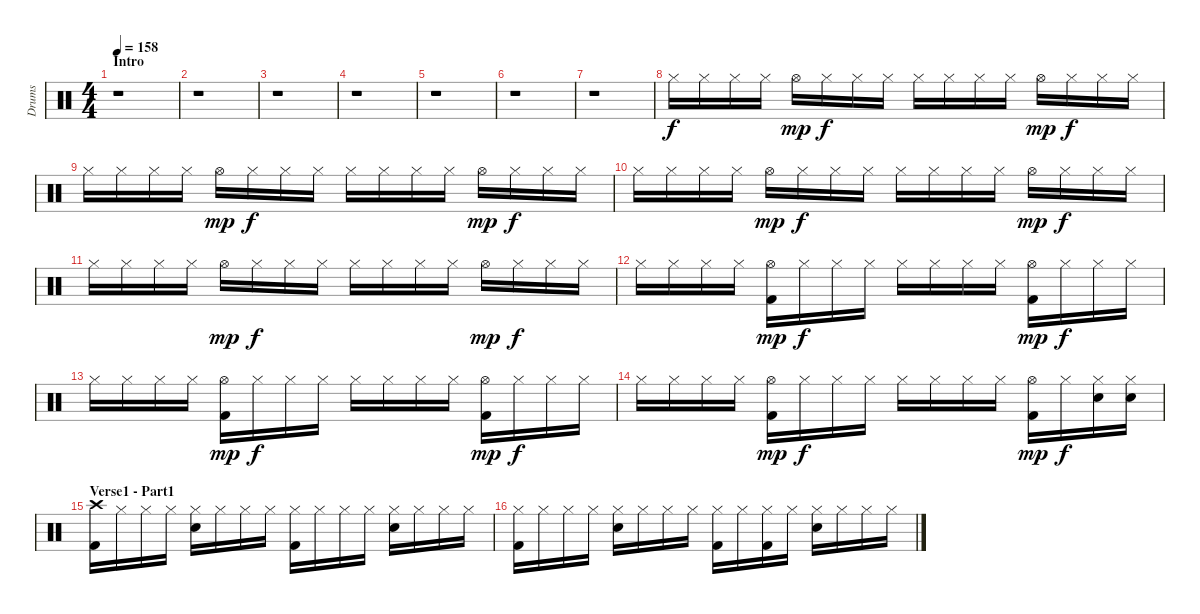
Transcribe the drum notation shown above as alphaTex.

\track ("Drums" "Drums") {instrument percussion}
\staff {score}
\articulation defaults
\ts (4 4)
\section ("" "Intro")
\tempo 158
\clef neutral
\ks c
r.1{dy f} |
r.1 |
r.1 |
r.1 |
r.1 |
r.1 |
r.1 |
"Hi-Hat (closed)".16 "Hi-Hat (closed)".16 "Hi-Hat (closed)".16 "Hi-Hat (closed)".16 "Hi-Hat (open)".16{dy mp} "Hi-Hat (closed)".16{dy f} "Hi-Hat (closed)".16 "Hi-Hat (closed)".16 "Hi-Hat (closed)".16 "Hi-Hat (closed)".16 "Hi-Hat (closed)".16 "Hi-Hat (closed)".16 "Hi-Hat (open)".16{dy mp} "Hi-Hat (closed)".16{dy f} "Hi-Hat (closed)".16 "Hi-Hat (closed)".16 |
"Hi-Hat (closed)".16 "Hi-Hat (closed)".16 "Hi-Hat (closed)".16 "Hi-Hat (closed)".16 "Hi-Hat (open)".16{dy mp} "Hi-Hat (closed)".16{dy f} "Hi-Hat (closed)".16 "Hi-Hat (closed)".16 "Hi-Hat (closed)".16 "Hi-Hat (closed)".16 "Hi-Hat (closed)".16 "Hi-Hat (closed)".16 "Hi-Hat (open)".16{dy mp} "Hi-Hat (closed)".16{dy f} "Hi-Hat (closed)".16 "Hi-Hat (closed)".16 |
"Hi-Hat (closed)".16 "Hi-Hat (closed)".16 "Hi-Hat (closed)".16 "Hi-Hat (closed)".16 "Hi-Hat (open)".16{dy mp} "Hi-Hat (closed)".16{dy f} "Hi-Hat (closed)".16 "Hi-Hat (closed)".16 "Hi-Hat (closed)".16 "Hi-Hat (closed)".16 "Hi-Hat (closed)".16 "Hi-Hat (closed)".16 "Hi-Hat (open)".16{dy mp} "Hi-Hat (closed)".16{dy f} "Hi-Hat (closed)".16 "Hi-Hat (closed)".16 |
"Hi-Hat (closed)".16 "Hi-Hat (closed)".16 "Hi-Hat (closed)".16 "Hi-Hat (closed)".16 "Hi-Hat (open)".16{dy mp} "Hi-Hat (closed)".16{dy f} "Hi-Hat (closed)".16 "Hi-Hat (closed)".16 "Hi-Hat (closed)".16 "Hi-Hat (closed)".16 "Hi-Hat (closed)".16 "Hi-Hat (closed)".16 "Hi-Hat (open)".16{dy mp} "Hi-Hat (closed)".16{dy f} "Hi-Hat (closed)".16 "Hi-Hat (closed)".16 |
"Hi-Hat (closed)".16 "Hi-Hat (closed)".16 "Hi-Hat (closed)".16 "Hi-Hat (closed)".16 ("Hi-Hat (open)" "Kick (hit) 2").16{dy mp} "Hi-Hat (closed)".16{dy f} "Hi-Hat (closed)".16 "Hi-Hat (closed)".16 "Hi-Hat (closed)".16 "Hi-Hat (closed)".16 "Hi-Hat (closed)".16 "Hi-Hat (closed)".16 ("Hi-Hat (open)" "Kick (hit) 2").16{dy mp} "Hi-Hat (closed)".16{dy f} "Hi-Hat (closed)".16 "Hi-Hat (closed)".16 |
"Hi-Hat (closed)".16 "Hi-Hat (closed)".16 "Hi-Hat (closed)".16 "Hi-Hat (closed)".16 ("Hi-Hat (open)" "Kick (hit) 2").16{dy mp} "Hi-Hat (closed)".16{dy f} "Hi-Hat (closed)".16 "Hi-Hat (closed)".16 "Hi-Hat (closed)".16 "Hi-Hat (closed)".16 "Hi-Hat (closed)".16 "Hi-Hat (closed)".16 ("Hi-Hat (open)" "Kick (hit) 2").16{dy mp} "Hi-Hat (closed)".16{dy f} "Hi-Hat (closed)".16 "Hi-Hat (closed)".16 |
"Hi-Hat (closed)".16 "Hi-Hat (closed)".16 "Hi-Hat (closed)".16 "Hi-Hat (closed)".16 ("Hi-Hat (open)" "Kick (hit) 2").16{dy mp} "Hi-Hat (closed)".16{dy f} "Hi-Hat (closed)".16 "Hi-Hat (closed)".16 "Hi-Hat (closed)".16 "Hi-Hat (closed)".16 "Hi-Hat (closed)".16 "Hi-Hat (closed)".16 ("Hi-Hat (open)" "Kick (hit) 2").16{dy mp} "Hi-Hat (closed)".16{dy f} ("Hi-Hat (closed)" "Snare (hit) 2").16 ("Hi-Hat (closed)" "Snare (hit) 2").16 |
\section ("" "Verse1 - Part1")
("Crash high (hit)" "Kick (hit) 2").16 "Hi-Hat (closed)".16 "Hi-Hat (closed)".16 "Hi-Hat (closed)".16 ("Hi-Hat (closed)" "Snare (hit) 2").16 "Hi-Hat (closed)".16 "Hi-Hat (closed)".16 "Hi-Hat (closed)".16 ("Hi-Hat (closed)" "Kick (hit) 2").16 "Hi-Hat (closed)".16 "Hi-Hat (closed)".16 "Hi-Hat (closed)".16 ("Hi-Hat (closed)" "Snare (hit) 2").16 "Hi-Hat (closed)".16 "Hi-Hat (closed)".16 "Hi-Hat (closed)".16 |
("Hi-Hat (closed)" "Kick (hit) 2").16 "Hi-Hat (closed)".16 "Hi-Hat (closed)".16 "Hi-Hat (closed)".16 ("Hi-Hat (closed)" "Snare (hit) 2").16 "Hi-Hat (closed)".16 "Hi-Hat (closed)".16 "Hi-Hat (closed)".16 ("Hi-Hat (closed)" "Kick (hit) 2").16 "Hi-Hat (closed)".16 ("Hi-Hat (closed)" "Kick (hit) 2").16 "Hi-Hat (closed)".16 ("Hi-Hat (closed)" "Snare (hit) 2").16 "Hi-Hat (closed)".16 "Hi-Hat (closed)".16 "Hi-Hat (closed)".16
